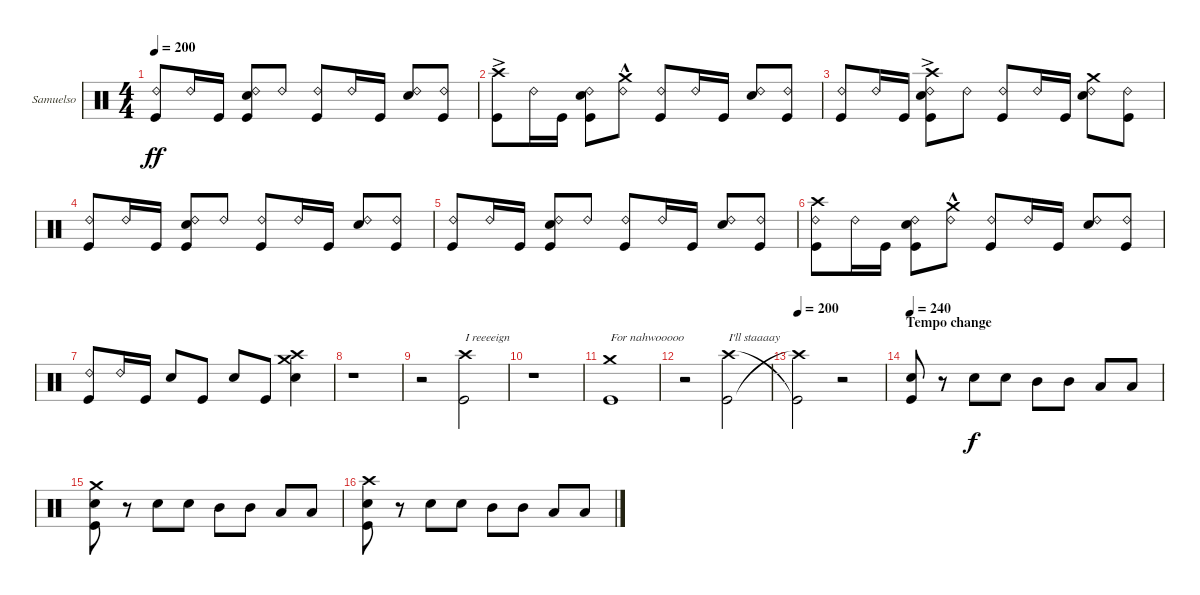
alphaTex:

\bracketExtendMode groupsimilarinstruments
\firstSystemTrackNameOrientation horizontal
\otherSystemsTrackNameOrientation horizontal
\track ("Gar Samuelson" "Samuelso") {instrument percussion}
\staff {score}
\articulation defaults
\ts (4 4)
\tempo 200
\clef neutral
\ks c
("Kick (hit)" "Ride (bell) 2").8{dy ff} "Ride (bell) 2".16 "Kick (hit)".16 ("Kick (hit)" "Snare (hit) 2" "Ride (bell) 2").8 "Ride (bell) 2".8 ("Kick (hit)" "Ride (bell) 2").8 "Ride (bell) 2".16 "Kick (hit)".16 ("Snare (hit) 2" "Ride (bell) 2").8 ("Kick (hit)" "Ride (bell) 2").8 |
("Kick (hit)" "Crash high (hit)"{ac}).8 "Ride (bell) 2".16 "Kick (hit)".16 ("Kick (hit)" "Snare (hit) 2" "Ride (bell) 2").8 ("Crash medium (hit)"{hac} "Ride (bell) 2").8 ("Kick (hit)" "Ride (bell) 2").8 "Ride (bell) 2".16 "Kick (hit)".16 ("Snare (hit) 2" "Ride (bell) 2").8 ("Kick (hit)" "Ride (bell) 2").8 |
("Kick (hit)" "Ride (bell) 2").8 "Ride (bell) 2".16 "Kick (hit)".16 ("Kick (hit)" "Snare (hit) 2" "Ride (bell) 2" "Crash high (hit)"{ac}).8 "Ride (bell) 2".8 ("Kick (hit)" "Ride (bell) 2").8 "Ride (bell) 2".16 "Kick (hit)".16 ("Snare (hit) 2" "Ride (bell) 2" "Crash medium (hit)").8 ("Kick (hit)" "Ride (bell) 2").8 |
("Kick (hit)" "Ride (bell) 2").8 "Ride (bell) 2".16 "Kick (hit)".16 ("Kick (hit)" "Snare (hit) 2" "Ride (bell) 2").8 "Ride (bell) 2".8 ("Kick (hit)" "Ride (bell) 2").8 "Ride (bell) 2".16 "Kick (hit)".16 ("Snare (hit) 2" "Ride (bell) 2").8 ("Kick (hit)" "Ride (bell) 2").8 |
("Kick (hit)" "Ride (bell) 2").8 "Ride (bell) 2".16 "Kick (hit)".16 ("Kick (hit)" "Snare (hit) 2" "Ride (bell) 2").8 "Ride (bell) 2".8 ("Kick (hit)" "Ride (bell) 2").8 "Ride (bell) 2".16 "Kick (hit)".16 ("Snare (hit) 2" "Ride (bell) 2").8 ("Kick (hit)" "Ride (bell) 2").8 |
("Kick (hit)" "Ride (bell) 2" "Crash high (hit)").8 "Ride (bell) 2".16 "Kick (hit)".16 ("Kick (hit)" "Snare (hit) 2" "Ride (bell) 2").8 ("Ride (bell) 2" "Crash medium (hit)"{hac}).8 ("Kick (hit)" "Ride (bell) 2").8 "Ride (bell) 2".16 "Kick (hit)".16 ("Snare (hit) 2" "Ride (bell) 2").8 ("Kick (hit)" "Ride (bell) 2").8 |
("Kick (hit)" "Ride (bell) 2").8 "Ride (bell) 2".16 "Kick (hit)".16 "Snare (hit) 2".8 "Kick (hit)".8 "Snare (hit) 2".8 "Kick (hit)".8 ("Snare (hit) 2" "Crash high (hit)" "Crash medium (hit)").4 |
r.1 |
r.2 ("Crash high (hit)" "Kick (hit)").2{txt "I reeeeign"} |
r.1 |
("Crash medium (hit)" "Kick (hit)").1{txt "For nahwooooo"} |
r.2 ("Crash high (hit)" "Kick (hit)").2{txt "I'll staaaay"} |
\tempo 200
("Kick (hit)"{t} "Crash high (hit)"{t}).2 r.2 |
\section ("" "Tempo change")
\tempo 240
("Kick (hit)" "Snare (hit) 2").8 r.8 "Snare (hit) 2".8{dy f} "Snare (hit) 2".8 "Mid Tom (hit)".8 "Mid Tom (hit)".8 "Low Tom (hit)".8 "Low Tom (hit)".8 |
("Kick (hit)" "Snare (hit) 2" "Crash medium (hit)").8 r.8 "Snare (hit) 2".8 "Snare (hit) 2".8 "Mid Tom (hit)".8 "Mid Tom (hit)".8 "Low Tom (hit)".8 "Low Tom (hit)".8 |
("Kick (hit)" "Snare (hit) 2" "Crash high (hit)").8 r.8 "Snare (hit) 2".8 "Snare (hit) 2".8 "Mid Tom (hit)".8 "Mid Tom (hit)".8 "Low Tom (hit)".8 "Low Tom (hit)".8
